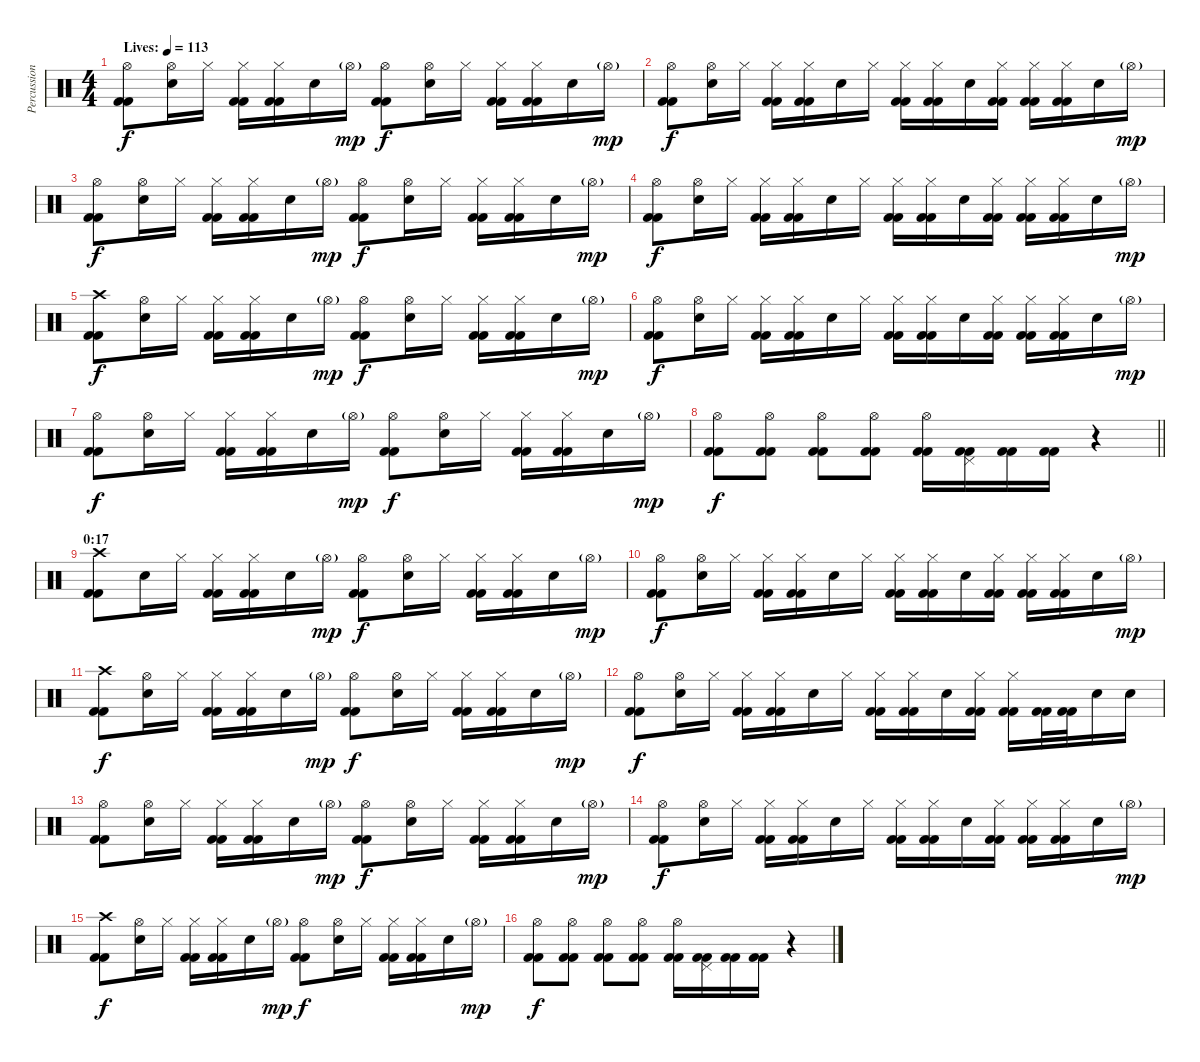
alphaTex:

\track ("Percussion" "Percussion") {instrument percussion}
\staff {score}
\articulation defaults
\ts (4 4)
\tempo (113 "Lives:")
\clef neutral
\ks c
("Hi-Hat (open)" "Kick (hit) 2" "Kick (hit) 2").8{dy f} ("Hi-Hat (open)" "Snare (hit) 2").16 "Hi-Hat (closed)".16 ("Hi-Hat (closed)" "Kick (hit) 2" "Kick (hit) 2").16 ("Hi-Hat (closed)" "Kick (hit) 2" "Kick (hit) 2").16 "Snare (hit) 2".16 "Hi-Hat (open)"{g}.16{dy mp} ("Hi-Hat (open)" "Kick (hit) 2" "Kick (hit) 2").8{dy f} ("Hi-Hat (open)" "Snare (hit) 2").16 "Hi-Hat (closed)".16 ("Hi-Hat (closed)" "Kick (hit) 2" "Kick (hit) 2").16 ("Hi-Hat (closed)" "Kick (hit) 2" "Kick (hit) 2").16 "Snare (hit) 2".16 "Hi-Hat (open)"{g}.16{dy mp} |
("Hi-Hat (open)" "Kick (hit) 2" "Kick (hit) 2").8{dy f} ("Hi-Hat (open)" "Snare (hit) 2").16 "Hi-Hat (closed)".16 ("Hi-Hat (closed)" "Kick (hit) 2" "Kick (hit) 2").16 ("Hi-Hat (closed)" "Kick (hit) 2" "Kick (hit) 2").16 "Snare (hit) 2".16 "Hi-Hat (closed)".16 ("Hi-Hat (closed)" "Kick (hit) 2" "Kick (hit) 2").16 ("Hi-Hat (closed)" "Kick (hit) 2" "Kick (hit) 2").16 "Snare (hit) 2".16 ("Hi-Hat (closed)" "Kick (hit) 2" "Kick (hit) 2").16 ("Hi-Hat (closed)" "Kick (hit) 2" "Kick (hit) 2").16 ("Hi-Hat (closed)" "Kick (hit) 2" "Kick (hit) 2").16 "Snare (hit) 2".16 "Hi-Hat (open)"{g}.16{dy mp} |
("Hi-Hat (open)" "Kick (hit) 2" "Kick (hit) 2").8{dy f} ("Hi-Hat (open)" "Snare (hit) 2").16 "Hi-Hat (closed)".16 ("Hi-Hat (closed)" "Kick (hit) 2" "Kick (hit) 2").16 ("Hi-Hat (closed)" "Kick (hit) 2" "Kick (hit) 2").16 "Snare (hit) 2".16 "Hi-Hat (open)"{g}.16{dy mp} ("Hi-Hat (open)" "Kick (hit) 2" "Kick (hit) 2").8{dy f} ("Hi-Hat (open)" "Snare (hit) 2").16 "Hi-Hat (closed)".16 ("Hi-Hat (closed)" "Kick (hit) 2" "Kick (hit) 2").16 ("Hi-Hat (closed)" "Kick (hit) 2" "Kick (hit) 2").16 "Snare (hit) 2".16 "Hi-Hat (open)"{g}.16{dy mp} |
("Hi-Hat (open)" "Kick (hit) 2" "Kick (hit) 2").8{dy f} ("Hi-Hat (open)" "Snare (hit) 2").16 "Hi-Hat (closed)".16 ("Hi-Hat (closed)" "Kick (hit) 2" "Kick (hit) 2").16 ("Hi-Hat (closed)" "Kick (hit) 2" "Kick (hit) 2").16 "Snare (hit) 2".16 "Hi-Hat (closed)".16 ("Hi-Hat (closed)" "Kick (hit) 2" "Kick (hit) 2").16 ("Hi-Hat (closed)" "Kick (hit) 2" "Kick (hit) 2").16 "Snare (hit) 2".16 ("Hi-Hat (closed)" "Kick (hit) 2" "Kick (hit) 2").16 ("Hi-Hat (closed)" "Kick (hit) 2" "Kick (hit) 2").16 ("Hi-Hat (closed)" "Kick (hit) 2" "Kick (hit) 2").16 "Snare (hit) 2".16 "Hi-Hat (open)"{g}.16{dy mp} |
("Crash high (hit)" "Kick (hit) 2" "Kick (hit) 2").8{dy f} ("Hi-Hat (open)" "Snare (hit) 2").16 "Hi-Hat (closed)".16 ("Hi-Hat (closed)" "Kick (hit) 2" "Kick (hit) 2").16 ("Hi-Hat (closed)" "Kick (hit) 2" "Kick (hit) 2").16 "Snare (hit) 2".16 "Hi-Hat (open)"{g}.16{dy mp} ("Hi-Hat (open)" "Kick (hit) 2" "Kick (hit) 2").8{dy f} ("Hi-Hat (open)" "Snare (hit) 2").16 "Hi-Hat (closed)".16 ("Hi-Hat (closed)" "Kick (hit) 2" "Kick (hit) 2").16 ("Hi-Hat (closed)" "Kick (hit) 2" "Kick (hit) 2").16 "Snare (hit) 2".16 "Hi-Hat (open)"{g}.16{dy mp} |
("Hi-Hat (open)" "Kick (hit) 2" "Kick (hit) 2").8{dy f} ("Hi-Hat (open)" "Snare (hit) 2").16 "Hi-Hat (closed)".16 ("Hi-Hat (closed)" "Kick (hit) 2" "Kick (hit) 2").16 ("Hi-Hat (closed)" "Kick (hit) 2" "Kick (hit) 2").16 "Snare (hit) 2".16 "Hi-Hat (closed)".16 ("Hi-Hat (closed)" "Kick (hit) 2" "Kick (hit) 2").16 ("Hi-Hat (closed)" "Kick (hit) 2" "Kick (hit) 2").16 "Snare (hit) 2".16 ("Hi-Hat (closed)" "Kick (hit) 2" "Kick (hit) 2").16 ("Hi-Hat (closed)" "Kick (hit) 2" "Kick (hit) 2").16 ("Hi-Hat (closed)" "Kick (hit) 2" "Kick (hit) 2").16 "Snare (hit) 2".16 "Hi-Hat (open)"{g}.16{dy mp} |
("Hi-Hat (open)" "Kick (hit) 2" "Kick (hit) 2").8{dy f} ("Hi-Hat (open)" "Snare (hit) 2").16 "Hi-Hat (closed)".16 ("Hi-Hat (closed)" "Kick (hit) 2" "Kick (hit) 2").16 ("Hi-Hat (closed)" "Kick (hit) 2" "Kick (hit) 2").16 "Snare (hit) 2".16 "Hi-Hat (open)"{g}.16{dy mp} ("Hi-Hat (open)" "Kick (hit) 2" "Kick (hit) 2").8{dy f} ("Hi-Hat (open)" "Snare (hit) 2").16 "Hi-Hat (closed)".16 ("Hi-Hat (closed)" "Kick (hit) 2" "Kick (hit) 2").16 ("Hi-Hat (closed)" "Kick (hit) 2" "Kick (hit) 2").16 "Snare (hit) 2".16 "Hi-Hat (open)"{g}.16{dy mp} |
\barLineRight lightlight
("Hi-Hat (open)" "Kick (hit) 2" "Kick (hit) 2").8{dy f} ("Hi-Hat (open)" "Kick (hit) 2" "Kick (hit) 2").8 ("Hi-Hat (open)" "Kick (hit) 2" "Kick (hit) 2").8 ("Hi-Hat (open)" "Kick (hit) 2" "Kick (hit) 2").8 ("Hi-Hat (open)" "Kick (hit) 2" "Kick (hit) 2").16 ("Pedal Hi-Hat (hit)" "Kick (hit) 2" "Kick (hit) 2").16 ("Kick (hit) 2" "Kick (hit) 2").16 ("Kick (hit) 2" "Kick (hit) 2").16 r.4 |
\section ("" "0:17")
("Crash high (hit)" "Kick (hit) 2" "Kick (hit) 2").8 "Snare (hit) 2".16 "Hi-Hat (closed)".16 ("Hi-Hat (closed)" "Kick (hit) 2" "Kick (hit) 2").16 ("Hi-Hat (closed)" "Kick (hit) 2" "Kick (hit) 2").16 "Snare (hit) 2".16 "Hi-Hat (open)"{g}.16{dy mp} ("Hi-Hat (open)" "Kick (hit) 2" "Kick (hit) 2").8{dy f} ("Hi-Hat (open)" "Snare (hit) 2").16 "Hi-Hat (closed)".16 ("Hi-Hat (closed)" "Kick (hit) 2" "Kick (hit) 2").16 ("Hi-Hat (closed)" "Kick (hit) 2" "Kick (hit) 2").16 "Snare (hit) 2".16 "Hi-Hat (open)"{g}.16{dy mp} |
("Hi-Hat (open)" "Kick (hit) 2" "Kick (hit) 2").8{dy f} ("Hi-Hat (open)" "Snare (hit) 2").16 "Hi-Hat (closed)".16 ("Hi-Hat (closed)" "Kick (hit) 2" "Kick (hit) 2").16 ("Hi-Hat (closed)" "Kick (hit) 2" "Kick (hit) 2").16 "Snare (hit) 2".16 "Hi-Hat (closed)".16 ("Hi-Hat (closed)" "Kick (hit) 2" "Kick (hit) 2").16 ("Hi-Hat (closed)" "Kick (hit) 2" "Kick (hit) 2").16 "Snare (hit) 2".16 ("Hi-Hat (closed)" "Kick (hit) 2" "Kick (hit) 2").16 ("Hi-Hat (closed)" "Kick (hit) 2" "Kick (hit) 2").16 ("Hi-Hat (closed)" "Kick (hit) 2" "Kick (hit) 2").16 "Snare (hit) 2".16 "Hi-Hat (open)"{g}.16{dy mp} |
("Crash high (hit)" "Kick (hit) 2" "Kick (hit) 2").8{dy f} ("Hi-Hat (open)" "Snare (hit) 2").16 "Hi-Hat (closed)".16 ("Hi-Hat (closed)" "Kick (hit) 2" "Kick (hit) 2").16 ("Hi-Hat (closed)" "Kick (hit) 2" "Kick (hit) 2").16 "Snare (hit) 2".16 "Hi-Hat (open)"{g}.16{dy mp} ("Hi-Hat (open)" "Kick (hit) 2" "Kick (hit) 2").8{dy f} ("Hi-Hat (open)" "Snare (hit) 2").16 "Hi-Hat (closed)".16 ("Hi-Hat (closed)" "Kick (hit) 2" "Kick (hit) 2").16 ("Hi-Hat (closed)" "Kick (hit) 2" "Kick (hit) 2").16 "Snare (hit) 2".16 "Hi-Hat (open)"{g}.16{dy mp} |
("Hi-Hat (open)" "Kick (hit) 2" "Kick (hit) 2").8{dy f} ("Hi-Hat (open)" "Snare (hit) 2").16 "Hi-Hat (closed)".16 ("Hi-Hat (closed)" "Kick (hit) 2" "Kick (hit) 2").16 ("Hi-Hat (closed)" "Kick (hit) 2" "Kick (hit) 2").16 "Snare (hit) 2".16 "Hi-Hat (closed)".16 ("Hi-Hat (closed)" "Kick (hit) 2" "Kick (hit) 2").16 ("Hi-Hat (closed)" "Kick (hit) 2" "Kick (hit) 2").16 "Snare (hit) 2".16 ("Hi-Hat (closed)" "Kick (hit) 2" "Kick (hit) 2").16 ("Hi-Hat (closed)" "Kick (hit) 2" "Kick (hit) 2").16 ("Kick (hit) 2" "Kick (hit) 2").32 ("Kick (hit) 2" "Kick (hit) 2").32 "Snare (hit) 2".16 "Snare (hit) 2".16 |
("Hi-Hat (open)" "Kick (hit) 2" "Kick (hit) 2").8 ("Hi-Hat (open)" "Snare (hit) 2").16 "Hi-Hat (closed)".16 ("Hi-Hat (closed)" "Kick (hit) 2" "Kick (hit) 2").16 ("Hi-Hat (closed)" "Kick (hit) 2" "Kick (hit) 2").16 "Snare (hit) 2".16 "Hi-Hat (open)"{g}.16{dy mp} ("Hi-Hat (open)" "Kick (hit) 2" "Kick (hit) 2").8{dy f} ("Hi-Hat (open)" "Snare (hit) 2").16 "Hi-Hat (closed)".16 ("Hi-Hat (closed)" "Kick (hit) 2" "Kick (hit) 2").16 ("Hi-Hat (closed)" "Kick (hit) 2" "Kick (hit) 2").16 "Snare (hit) 2".16 "Hi-Hat (open)"{g}.16{dy mp} |
("Hi-Hat (open)" "Kick (hit) 2" "Kick (hit) 2").8{dy f} ("Hi-Hat (open)" "Snare (hit) 2").16 "Hi-Hat (closed)".16 ("Hi-Hat (closed)" "Kick (hit) 2" "Kick (hit) 2").16 ("Hi-Hat (closed)" "Kick (hit) 2" "Kick (hit) 2").16 "Snare (hit) 2".16 "Hi-Hat (closed)".16 ("Hi-Hat (closed)" "Kick (hit) 2" "Kick (hit) 2").16 ("Hi-Hat (closed)" "Kick (hit) 2" "Kick (hit) 2").16 "Snare (hit) 2".16 ("Hi-Hat (closed)" "Kick (hit) 2" "Kick (hit) 2").16 ("Hi-Hat (closed)" "Kick (hit) 2" "Kick (hit) 2").16 ("Hi-Hat (closed)" "Kick (hit) 2" "Kick (hit) 2").16 "Snare (hit) 2".16 "Hi-Hat (open)"{g}.16{dy mp} |
("Crash high (hit)" "Kick (hit) 2" "Kick (hit) 2").8{dy f} ("Hi-Hat (open)" "Snare (hit) 2").16 "Hi-Hat (closed)".16 ("Hi-Hat (closed)" "Kick (hit) 2" "Kick (hit) 2").16 ("Hi-Hat (closed)" "Kick (hit) 2" "Kick (hit) 2").16 "Snare (hit) 2".16 "Hi-Hat (open)"{g}.16{dy mp} ("Hi-Hat (open)" "Kick (hit) 2" "Kick (hit) 2").8{dy f} ("Hi-Hat (open)" "Snare (hit) 2").16 "Hi-Hat (closed)".16 ("Hi-Hat (closed)" "Kick (hit) 2" "Kick (hit) 2").16 ("Hi-Hat (closed)" "Kick (hit) 2" "Kick (hit) 2").16 "Snare (hit) 2".16 "Hi-Hat (open)"{g}.16{dy mp} |
("Hi-Hat (open)" "Kick (hit) 2" "Kick (hit) 2").8{dy f} ("Hi-Hat (open)" "Kick (hit) 2" "Kick (hit) 2").8 ("Hi-Hat (open)" "Kick (hit) 2" "Kick (hit) 2").8 ("Hi-Hat (open)" "Kick (hit) 2" "Kick (hit) 2").8 ("Hi-Hat (open)" "Kick (hit) 2" "Kick (hit) 2").16 ("Pedal Hi-Hat (hit)" "Kick (hit) 2" "Kick (hit) 2").16 ("Kick (hit) 2" "Kick (hit) 2").16 ("Kick (hit) 2" "Kick (hit) 2").16 r.4
